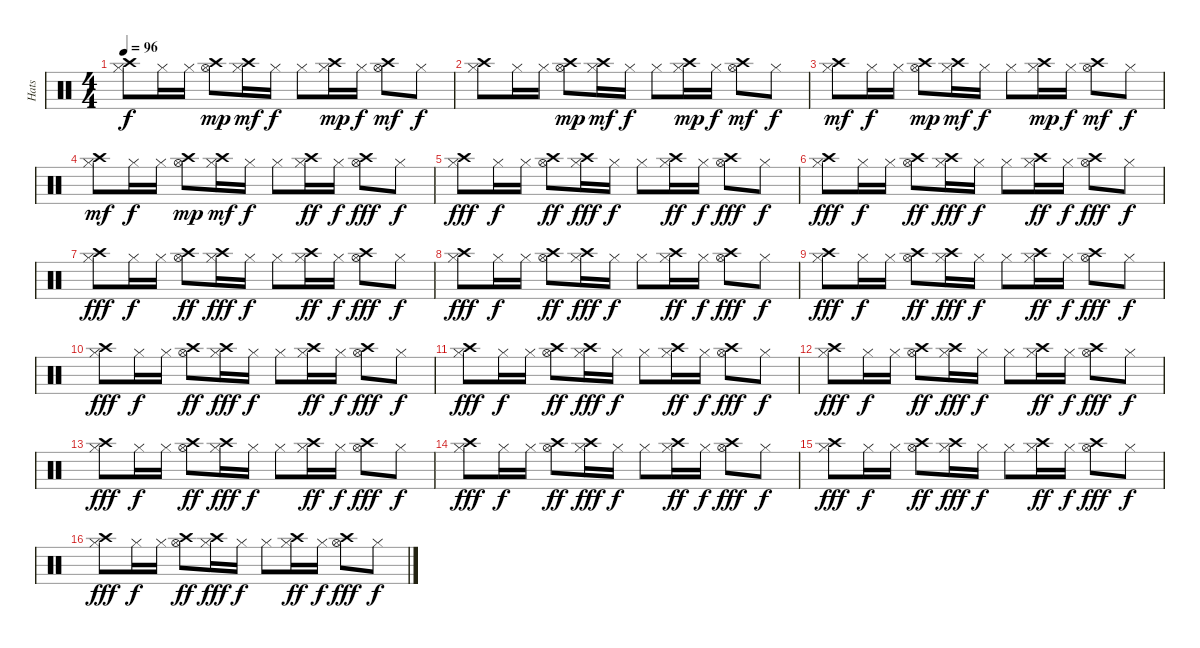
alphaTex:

\track ("Hats" "Hats") {instrument percussion}
\staff {score}
\articulation defaults
\ts (4 4)
\tempo 96
\clef neutral
\ks c
("Hi-Hat (closed)" "Crash high (hit)").8{dy f} "Hi-Hat (closed)".16 "Hi-Hat (closed)".16 ("Hi-Hat (open)" "Crash high (hit)").8{dy mp} ("Hi-Hat (closed)" "Crash high (hit)").16{dy mf} "Hi-Hat (closed)".16{dy f} "Hi-Hat (closed)".8 ("Hi-Hat (closed)" "Crash high (hit)").16{dy mp} "Hi-Hat (closed)".16{dy f} ("Hi-Hat (open)" "Crash high (hit)").8{dy mf} "Hi-Hat (closed)".8{dy f} |
("Hi-Hat (closed)" "Crash high (hit)").8 "Hi-Hat (closed)".16 "Hi-Hat (closed)".16 ("Hi-Hat (open)" "Crash high (hit)").8{dy mp} ("Hi-Hat (closed)" "Crash high (hit)").16{dy mf} "Hi-Hat (closed)".16{dy f} "Hi-Hat (closed)".8 ("Hi-Hat (closed)" "Crash high (hit)").16{dy mp} "Hi-Hat (closed)".16{dy f} ("Hi-Hat (open)" "Crash high (hit)").8{dy mf} "Hi-Hat (closed)".8{dy f} |
("Hi-Hat (closed)" "Crash high (hit)").8{dy mf} "Hi-Hat (closed)".16{dy f} "Hi-Hat (closed)".16 ("Hi-Hat (open)" "Crash high (hit)").8{dy mp} ("Hi-Hat (closed)" "Crash high (hit)").16{dy mf} "Hi-Hat (closed)".16{dy f} "Hi-Hat (closed)".8 ("Hi-Hat (closed)" "Crash high (hit)").16{dy mp} "Hi-Hat (closed)".16{dy f} ("Hi-Hat (open)" "Crash high (hit)").8{dy mf} "Hi-Hat (closed)".8{dy f} |
("Hi-Hat (closed)" "Crash high (hit)").8{dy mf} "Hi-Hat (closed)".16{dy f} "Hi-Hat (closed)".16 ("Hi-Hat (open)" "Crash high (hit)").8{dy mp} ("Hi-Hat (closed)" "Crash high (hit)").16{dy mf} "Hi-Hat (closed)".16{dy f} "Hi-Hat (closed)".8 ("Hi-Hat (closed)" "Crash high (hit)").16{dy ff} "Hi-Hat (closed)".16{dy f} ("Hi-Hat (open)" "Crash high (hit)").8{dy fff} "Hi-Hat (closed)".8{dy f} |
("Hi-Hat (closed)" "Crash high (hit)").8{dy fff} "Hi-Hat (closed)".16{dy f} "Hi-Hat (closed)".16 ("Hi-Hat (open)" "Crash high (hit)").8{dy ff} ("Hi-Hat (closed)" "Crash high (hit)").16{dy fff} "Hi-Hat (closed)".16{dy f} "Hi-Hat (closed)".8 ("Hi-Hat (closed)" "Crash high (hit)").16{dy ff} "Hi-Hat (closed)".16{dy f} ("Hi-Hat (open)" "Crash high (hit)").8{dy fff} "Hi-Hat (closed)".8{dy f} |
("Hi-Hat (closed)" "Crash high (hit)").8{dy fff} "Hi-Hat (closed)".16{dy f} "Hi-Hat (closed)".16 ("Hi-Hat (open)" "Crash high (hit)").8{dy ff} ("Hi-Hat (closed)" "Crash high (hit)").16{dy fff} "Hi-Hat (closed)".16{dy f} "Hi-Hat (closed)".8 ("Hi-Hat (closed)" "Crash high (hit)").16{dy ff} "Hi-Hat (closed)".16{dy f} ("Hi-Hat (open)" "Crash high (hit)").8{dy fff} "Hi-Hat (closed)".8{dy f} |
("Hi-Hat (closed)" "Crash high (hit)").8{dy fff} "Hi-Hat (closed)".16{dy f} "Hi-Hat (closed)".16 ("Hi-Hat (open)" "Crash high (hit)").8{dy ff} ("Hi-Hat (closed)" "Crash high (hit)").16{dy fff} "Hi-Hat (closed)".16{dy f} "Hi-Hat (closed)".8 ("Hi-Hat (closed)" "Crash high (hit)").16{dy ff} "Hi-Hat (closed)".16{dy f} ("Hi-Hat (open)" "Crash high (hit)").8{dy fff} "Hi-Hat (closed)".8{dy f} |
("Hi-Hat (closed)" "Crash high (hit)").8{dy fff} "Hi-Hat (closed)".16{dy f} "Hi-Hat (closed)".16 ("Hi-Hat (open)" "Crash high (hit)").8{dy ff} ("Hi-Hat (closed)" "Crash high (hit)").16{dy fff} "Hi-Hat (closed)".16{dy f} "Hi-Hat (closed)".8 ("Hi-Hat (closed)" "Crash high (hit)").16{dy ff} "Hi-Hat (closed)".16{dy f} ("Hi-Hat (open)" "Crash high (hit)").8{dy fff} "Hi-Hat (closed)".8{dy f} |
("Hi-Hat (closed)" "Crash high (hit)").8{dy fff} "Hi-Hat (closed)".16{dy f} "Hi-Hat (closed)".16 ("Hi-Hat (open)" "Crash high (hit)").8{dy ff} ("Hi-Hat (closed)" "Crash high (hit)").16{dy fff} "Hi-Hat (closed)".16{dy f} "Hi-Hat (closed)".8 ("Hi-Hat (closed)" "Crash high (hit)").16{dy ff} "Hi-Hat (closed)".16{dy f} ("Hi-Hat (open)" "Crash high (hit)").8{dy fff} "Hi-Hat (closed)".8{dy f} |
("Hi-Hat (closed)" "Crash high (hit)").8{dy fff} "Hi-Hat (closed)".16{dy f} "Hi-Hat (closed)".16 ("Hi-Hat (open)" "Crash high (hit)").8{dy ff} ("Hi-Hat (closed)" "Crash high (hit)").16{dy fff} "Hi-Hat (closed)".16{dy f} "Hi-Hat (closed)".8 ("Hi-Hat (closed)" "Crash high (hit)").16{dy ff} "Hi-Hat (closed)".16{dy f} ("Hi-Hat (open)" "Crash high (hit)").8{dy fff} "Hi-Hat (closed)".8{dy f} |
("Hi-Hat (closed)" "Crash high (hit)").8{dy fff} "Hi-Hat (closed)".16{dy f} "Hi-Hat (closed)".16 ("Hi-Hat (open)" "Crash high (hit)").8{dy ff} ("Hi-Hat (closed)" "Crash high (hit)").16{dy fff} "Hi-Hat (closed)".16{dy f} "Hi-Hat (closed)".8 ("Hi-Hat (closed)" "Crash high (hit)").16{dy ff} "Hi-Hat (closed)".16{dy f} ("Hi-Hat (open)" "Crash high (hit)").8{dy fff} "Hi-Hat (closed)".8{dy f} |
("Hi-Hat (closed)" "Crash high (hit)").8{dy fff} "Hi-Hat (closed)".16{dy f} "Hi-Hat (closed)".16 ("Hi-Hat (open)" "Crash high (hit)").8{dy ff} ("Hi-Hat (closed)" "Crash high (hit)").16{dy fff} "Hi-Hat (closed)".16{dy f} "Hi-Hat (closed)".8 ("Hi-Hat (closed)" "Crash high (hit)").16{dy ff} "Hi-Hat (closed)".16{dy f} ("Hi-Hat (open)" "Crash high (hit)").8{dy fff} "Hi-Hat (closed)".8{dy f} |
("Hi-Hat (closed)" "Crash high (hit)").8{dy fff} "Hi-Hat (closed)".16{dy f} "Hi-Hat (closed)".16 ("Hi-Hat (open)" "Crash high (hit)").8{dy ff} ("Hi-Hat (closed)" "Crash high (hit)").16{dy fff} "Hi-Hat (closed)".16{dy f} "Hi-Hat (closed)".8 ("Hi-Hat (closed)" "Crash high (hit)").16{dy ff} "Hi-Hat (closed)".16{dy f} ("Hi-Hat (open)" "Crash high (hit)").8{dy fff} "Hi-Hat (closed)".8{dy f} |
("Hi-Hat (closed)" "Crash high (hit)").8{dy fff} "Hi-Hat (closed)".16{dy f} "Hi-Hat (closed)".16 ("Hi-Hat (open)" "Crash high (hit)").8{dy ff} ("Hi-Hat (closed)" "Crash high (hit)").16{dy fff} "Hi-Hat (closed)".16{dy f} "Hi-Hat (closed)".8 ("Hi-Hat (closed)" "Crash high (hit)").16{dy ff} "Hi-Hat (closed)".16{dy f} ("Hi-Hat (open)" "Crash high (hit)").8{dy fff} "Hi-Hat (closed)".8{dy f} |
("Hi-Hat (closed)" "Crash high (hit)").8{dy fff} "Hi-Hat (closed)".16{dy f} "Hi-Hat (closed)".16 ("Hi-Hat (open)" "Crash high (hit)").8{dy ff} ("Hi-Hat (closed)" "Crash high (hit)").16{dy fff} "Hi-Hat (closed)".16{dy f} "Hi-Hat (closed)".8 ("Hi-Hat (closed)" "Crash high (hit)").16{dy ff} "Hi-Hat (closed)".16{dy f} ("Hi-Hat (open)" "Crash high (hit)").8{dy fff} "Hi-Hat (closed)".8{dy f} |
("Hi-Hat (closed)" "Crash high (hit)").8{dy fff} "Hi-Hat (closed)".16{dy f} "Hi-Hat (closed)".16 ("Hi-Hat (open)" "Crash high (hit)").8{dy ff} ("Hi-Hat (closed)" "Crash high (hit)").16{dy fff} "Hi-Hat (closed)".16{dy f} "Hi-Hat (closed)".8 ("Hi-Hat (closed)" "Crash high (hit)").16{dy ff} "Hi-Hat (closed)".16{dy f} ("Hi-Hat (open)" "Crash high (hit)").8{dy fff} "Hi-Hat (closed)".8{dy f}
